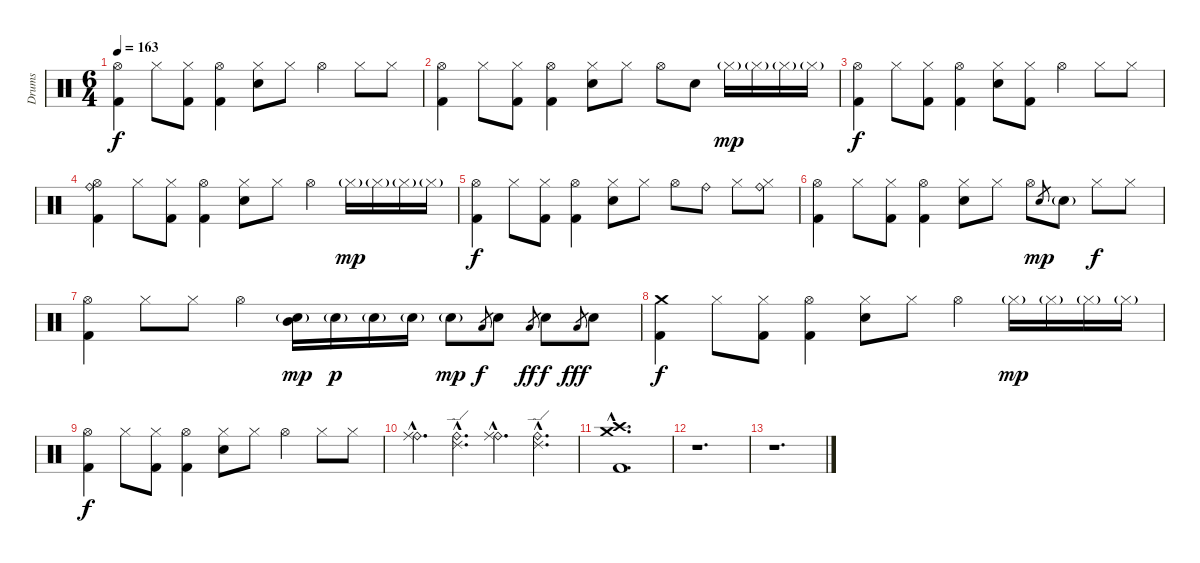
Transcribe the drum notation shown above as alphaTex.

\track ("Drums" "Drums") {instrument percussion}
\staff {score}
\articulation defaults
\ts (6 4)
\tempo 163
\clef neutral
\ks c
("Hi-Hat (open)" "Kick (hit) 2").4{dy f} "Hi-Hat (closed)".8 ("Hi-Hat (closed)" "Kick (hit) 2").8 ("Hi-Hat (open)" "Kick (hit) 2").4 ("Hi-Hat (closed)" "Electric Snare (hit)").8 "Hi-Hat (closed)".8 "Hi-Hat (open)".4 "Hi-Hat (closed)".8 "Hi-Hat (closed)".8 |
("Hi-Hat (open)" "Kick (hit) 2").4 "Hi-Hat (closed)".8 ("Hi-Hat (closed)" "Kick (hit) 2").8 ("Hi-Hat (open)" "Kick (hit) 2").4 ("Hi-Hat (closed)" "Electric Snare (hit)").8 "Hi-Hat (closed)".8 "Hi-Hat (open)".8 "Electric Snare (hit)".8 "Hi-Hat (closed)"{g}.16{dy mp} "Hi-Hat (closed)"{g}.16 "Hi-Hat (closed)"{g}.16 "Hi-Hat (closed)"{g}.16 |
("Hi-Hat (open)" "Kick (hit) 2").4{dy f} "Hi-Hat (closed)".8 ("Hi-Hat (closed)" "Kick (hit) 2").8 ("Hi-Hat (open)" "Kick (hit) 2").4 ("Hi-Hat (closed)" "Electric Snare (hit)").8 ("Hi-Hat (closed)" "Kick (hit) 2").8 "Hi-Hat (open)".4 "Hi-Hat (closed)".8 "Hi-Hat (closed)".8 |
("Ride (bell)" "Hi-Hat (open)" "Kick (hit) 2").4 "Hi-Hat (closed)".8 ("Hi-Hat (closed)" "Kick (hit) 2").8 ("Hi-Hat (open)" "Kick (hit) 2").4 ("Hi-Hat (closed)" "Electric Snare (hit)").8 "Hi-Hat (closed)".8 "Hi-Hat (open)".4 "Hi-Hat (closed)"{g}.16{dy mp} "Hi-Hat (closed)"{g}.16 "Hi-Hat (closed)"{g}.16 "Hi-Hat (closed)"{g}.16 |
("Hi-Hat (open)" "Kick (hit) 2").4{dy f} "Hi-Hat (closed)".8 ("Hi-Hat (closed)" "Kick (hit) 2").8 ("Hi-Hat (open)" "Kick (hit) 2").4 ("Hi-Hat (closed)" "Electric Snare (hit)").8 "Hi-Hat (closed)".8 "Hi-Hat (open)".8 "Ride (bell)".8 "Hi-Hat (closed)".8 ("Ride (bell)" "Hi-Hat (closed)").8 |
("Hi-Hat (open)" "Kick (hit) 2").4 "Hi-Hat (closed)".8 ("Hi-Hat (closed)" "Kick (hit) 2").8 ("Hi-Hat (open)" "Kick (hit) 2").4 ("Hi-Hat (closed)" "Electric Snare (hit)").8 "Hi-Hat (closed)".8 "Hi-Hat (open)".8 "Electric Snare (hit)".8{gr dy mp} "Electric Snare (hit)"{g}.8 "Hi-Hat (closed)".8{dy f} "Hi-Hat (closed)".8 |
("Hi-Hat (open)" "Kick (hit) 2").4 "Hi-Hat (closed)".8 "Hi-Hat (closed)".8 "Hi-Hat (open)".4 ("Mid Tom (hit)" "Electric Snare (hit)"{g}).16{dy mp} "Electric Snare (hit)"{g}.16{dy p} "Electric Snare (hit)"{g}.16 "Electric Snare (hit)"{g}.16 "Electric Snare (hit)"{g}.8{dy mp} "Low Tom (hit)".8{gr dy f} "Electric Snare (hit)".8 "Low Tom (hit)".8{gr dy ff} "Electric Snare (hit)".8{dy f} "Low Tom (hit)".8{gr dy fff} "Electric Snare (hit)".8 |
("Crash medium (hit)" "Kick (hit) 2").4{dy f} "Hi-Hat (closed)".8 ("Hi-Hat (closed)" "Kick (hit) 2").8 ("Hi-Hat (open)" "Kick (hit) 2").4 ("Hi-Hat (closed)" "Electric Snare (hit)").8 "Hi-Hat (closed)".8 "Hi-Hat (open)".4 "Hi-Hat (closed)"{g}.16{dy mp} "Hi-Hat (closed)"{g}.16 "Hi-Hat (closed)"{g}.16 "Hi-Hat (closed)"{g}.16 |
("Hi-Hat (open)" "Kick (hit) 2").4{dy f} "Hi-Hat (closed)".8 ("Hi-Hat (closed)" "Kick (hit) 2").8 ("Hi-Hat (open)" "Kick (hit) 2").4 ("Hi-Hat (closed)" "Electric Snare (hit)").8 "Hi-Hat (closed)".8 "Hi-Hat (open)".4 "Hi-Hat (closed)".8 "Hi-Hat (closed)".8 |
("Ride (bell)"{hac} "Ride (middle)"{hac}).4{d} ("Ride (bell)"{hac} "Ride (edge) 2"{hac}).4{d} ("Ride (bell)"{hac} "Ride (middle)"{hac}).4{d} ("Ride (bell)"{hac} "Ride (edge) 2"{hac}).4{d} |
("Crash medium (hit)"{hac} "Crash high (hit)"{hac} "Kick (hit) 2"{hac}).1{d} |
r.1{d} |
r.1{d}
